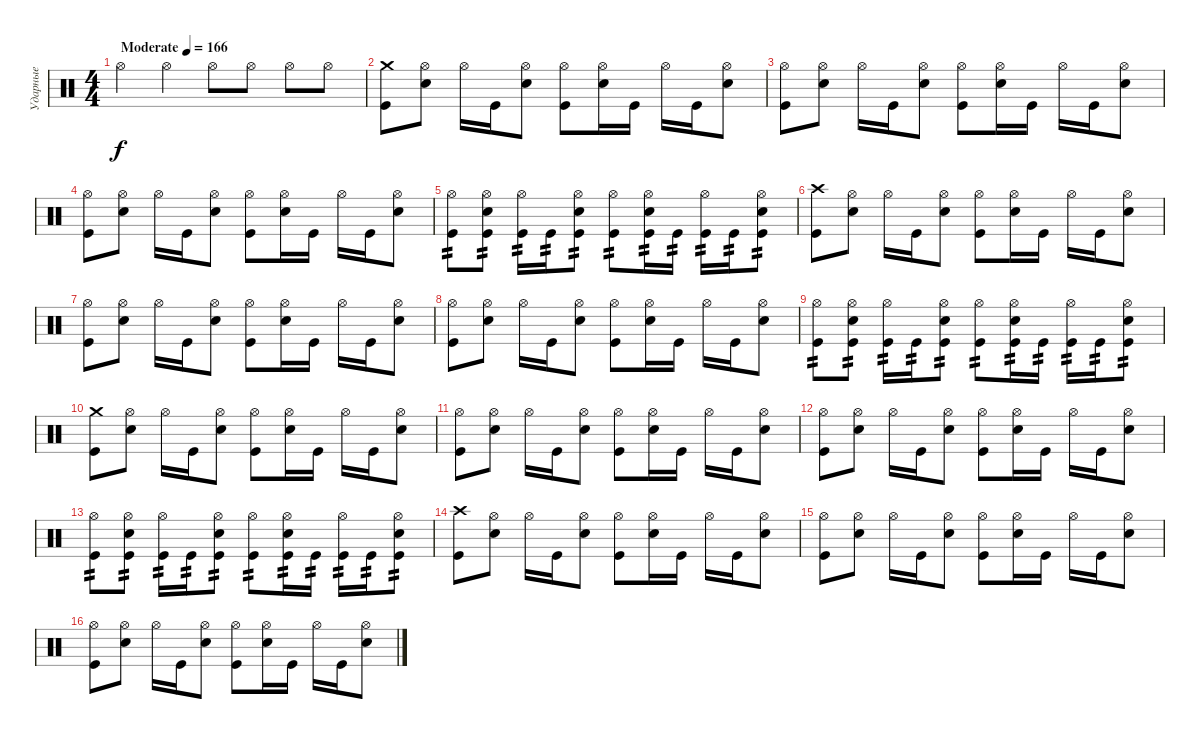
\track ("Ударные" "Ударные") {instrument percussion}
\staff {score}
\articulation defaults
\ts (4 4)
\tempo (166 "Moderate")
\clef neutral
\ks c "Hi-Hat (open)".4{dy f} "Hi-Hat (open)".4 "Hi-Hat (open)".8 "Hi-Hat (open)".8 "Hi-Hat (open)".8 "Hi-Hat (open)".8
|
("Kick (hit)" "Crash medium (hit)").8 ("Electric Snare (hit)" "Hi-Hat (open)").8 "Hi-Hat (open)".16 "Kick (hit)".16 ("Electric Snare (hit)" "Hi-Hat (open)").8 ("Kick (hit)" "Hi-Hat (open)").8 ("Electric Snare (hit)" "Hi-Hat (open)").16 "Kick (hit)".16 "Hi-Hat (open)".16 "Kick (hit)".16 ("Electric Snare (hit)" "Hi-Hat (open)").8 |
("Kick (hit)" "Hi-Hat (open)").8 ("Electric Snare (hit)" "Hi-Hat (open)").8 "Hi-Hat (open)".16 "Kick (hit)".16 ("Electric Snare (hit)" "Hi-Hat (open)").8 ("Kick (hit)" "Hi-Hat (open)").8 ("Electric Snare (hit)" "Hi-Hat (open)").16 "Kick (hit)".16 "Hi-Hat (open)".16 "Kick (hit)".16 ("Electric Snare (hit)" "Hi-Hat (open)").8 |
("Kick (hit)" "Hi-Hat (open)").8 ("Electric Snare (hit)" "Hi-Hat (open)").8 "Hi-Hat (open)".16 "Kick (hit)".16 ("Electric Snare (hit)" "Hi-Hat (open)").8 ("Kick (hit)" "Hi-Hat (open)").8 ("Electric Snare (hit)" "Hi-Hat (open)").16 "Kick (hit)".16 "Hi-Hat (open)".16 "Kick (hit)".16 ("Electric Snare (hit)" "Hi-Hat (open)").8 |
("Kick (hit)" "Hi-Hat (open)").8{tp 2} ("Electric Snare (hit)" "Hi-Hat (open)" "Kick (hit)").8{tp 2} ("Hi-Hat (open)" "Kick (hit)").16{tp 2} "Kick (hit)".16{tp 2} ("Electric Snare (hit)" "Hi-Hat (open)" "Kick (hit)").8{tp 2} ("Kick (hit)" "Hi-Hat (open)").8{tp 2} ("Electric Snare (hit)" "Hi-Hat (open)" "Kick (hit)").16{tp 2} "Kick (hit)".16{tp 2} ("Hi-Hat (open)" "Kick (hit)").16{tp 2} "Kick (hit)".16{tp 2} ("Electric Snare (hit)" "Hi-Hat (open)" "Kick (hit)").8{tp 2} |
("Kick (hit)" "Crash high (hit)").8 ("Electric Snare (hit)" "Hi-Hat (open)").8 "Hi-Hat (open)".16 "Kick (hit)".16 ("Electric Snare (hit)" "Hi-Hat (open)").8 ("Kick (hit)" "Hi-Hat (open)").8 ("Electric Snare (hit)" "Hi-Hat (open)").16 "Kick (hit)".16 "Hi-Hat (open)".16 "Kick (hit)".16 ("Electric Snare (hit)" "Hi-Hat (open)").8 |
("Kick (hit)" "Hi-Hat (open)").8 ("Electric Snare (hit)" "Hi-Hat (open)").8 "Hi-Hat (open)".16 "Kick (hit)".16 ("Electric Snare (hit)" "Hi-Hat (open)").8 ("Kick (hit)" "Hi-Hat (open)").8 ("Electric Snare (hit)" "Hi-Hat (open)").16 "Kick (hit)".16 "Hi-Hat (open)".16 "Kick (hit)".16 ("Electric Snare (hit)" "Hi-Hat (open)").8 |
("Kick (hit)" "Hi-Hat (open)").8 ("Electric Snare (hit)" "Hi-Hat (open)").8 "Hi-Hat (open)".16 "Kick (hit)".16 ("Electric Snare (hit)" "Hi-Hat (open)").8 ("Kick (hit)" "Hi-Hat (open)").8 ("Electric Snare (hit)" "Hi-Hat (open)").16 "Kick (hit)".16 "Hi-Hat (open)".16 "Kick (hit)".16 ("Electric Snare (hit)" "Hi-Hat (open)").8 |
("Kick (hit)" "Hi-Hat (open)").8{tp 2} ("Electric Snare (hit)" "Hi-Hat (open)" "Kick (hit)").8{tp 2} ("Hi-Hat (open)" "Kick (hit)").16{tp 2} "Kick (hit)".16{tp 2} ("Electric Snare (hit)" "Hi-Hat (open)" "Kick (hit)").8{tp 2} ("Kick (hit)" "Hi-Hat (open)").8{tp 2} ("Electric Snare (hit)" "Hi-Hat (open)" "Kick (hit)").16{tp 2} "Kick (hit)".16{tp 2} ("Hi-Hat (open)" "Kick (hit)").16{tp 2} "Kick (hit)".16{tp 2} ("Electric Snare (hit)" "Hi-Hat (open)" "Kick (hit)").8{tp 2} |
("Kick (hit)" "Crash medium (hit)").8 ("Electric Snare (hit)" "Hi-Hat (open)").8 "Hi-Hat (open)".16 "Kick (hit)".16 ("Electric Snare (hit)" "Hi-Hat (open)").8 ("Kick (hit)" "Hi-Hat (open)").8 ("Electric Snare (hit)" "Hi-Hat (open)").16 "Kick (hit)".16 "Hi-Hat (open)".16 "Kick (hit)".16 ("Electric Snare (hit)" "Hi-Hat (open)").8 |
("Kick (hit)" "Hi-Hat (open)").8 ("Electric Snare (hit)" "Hi-Hat (open)").8 "Hi-Hat (open)".16 "Kick (hit)".16 ("Electric Snare (hit)" "Hi-Hat (open)").8 ("Kick (hit)" "Hi-Hat (open)").8 ("Electric Snare (hit)" "Hi-Hat (open)").16 "Kick (hit)".16 "Hi-Hat (open)".16 "Kick (hit)".16 ("Electric Snare (hit)" "Hi-Hat (open)").8 |
("Kick (hit)" "Hi-Hat (open)").8 ("Electric Snare (hit)" "Hi-Hat (open)").8 "Hi-Hat (open)".16 "Kick (hit)".16 ("Electric Snare (hit)" "Hi-Hat (open)").8 ("Kick (hit)" "Hi-Hat (open)").8 ("Electric Snare (hit)" "Hi-Hat (open)").16 "Kick (hit)".16 "Hi-Hat (open)".16 "Kick (hit)".16 ("Electric Snare (hit)" "Hi-Hat (open)").8 |
("Kick (hit)" "Hi-Hat (open)").8{tp 2} ("Electric Snare (hit)" "Hi-Hat (open)" "Kick (hit)").8{tp 2} ("Hi-Hat (open)" "Kick (hit)").16{tp 2} "Kick (hit)".16{tp 2} ("Electric Snare (hit)" "Hi-Hat (open)" "Kick (hit)").8{tp 2} ("Kick (hit)" "Hi-Hat (open)").8{tp 2} ("Electric Snare (hit)" "Hi-Hat (open)" "Kick (hit)").16{tp 2} "Kick (hit)".16{tp 2} ("Hi-Hat (open)" "Kick (hit)").16{tp 2} "Kick (hit)".16{tp 2} ("Electric Snare (hit)" "Hi-Hat (open)" "Kick (hit)").8{tp 2} |
("Kick (hit)" "Crash high (hit)").8 ("Electric Snare (hit)" "Hi-Hat (open)").8 "Hi-Hat (open)".16 "Kick (hit)".16 ("Electric Snare (hit)" "Hi-Hat (open)").8 ("Kick (hit)" "Hi-Hat (open)").8 ("Electric Snare (hit)" "Hi-Hat (open)").16 "Kick (hit)".16 "Hi-Hat (open)".16 "Kick (hit)".16 ("Electric Snare (hit)" "Hi-Hat (open)").8 |
("Kick (hit)" "Hi-Hat (open)").8 ("Electric Snare (hit)" "Hi-Hat (open)").8 "Hi-Hat (open)".16 "Kick (hit)".16 ("Electric Snare (hit)" "Hi-Hat (open)").8 ("Kick (hit)" "Hi-Hat (open)").8 ("Electric Snare (hit)" "Hi-Hat (open)").16 "Kick (hit)".16 "Hi-Hat (open)".16 "Kick (hit)".16 ("Electric Snare (hit)" "Hi-Hat (open)").8 |
("Kick (hit)" "Hi-Hat (open)").8 ("Electric Snare (hit)" "Hi-Hat (open)").8 "Hi-Hat (open)".16 "Kick (hit)".16 ("Electric Snare (hit)" "Hi-Hat (open)").8 ("Kick (hit)" "Hi-Hat (open)").8 ("Electric Snare (hit)" "Hi-Hat (open)").16 "Kick (hit)".16 "Hi-Hat (open)".16 "Kick (hit)".16 ("Electric Snare (hit)" "Hi-Hat (open)").8
